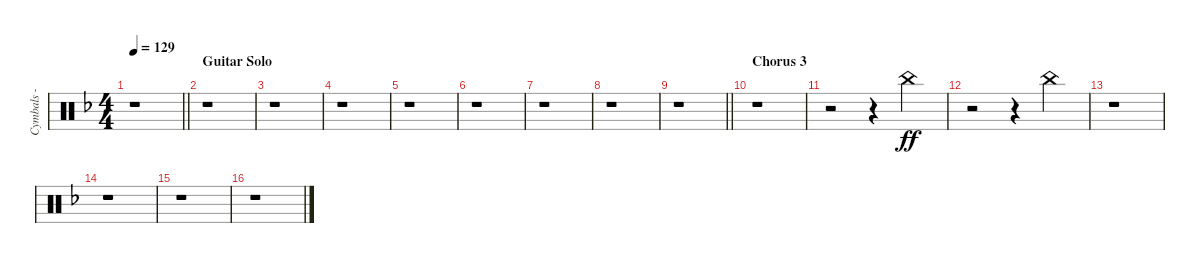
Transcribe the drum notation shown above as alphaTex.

\track ("Cymbals - china" "Cymbals - ") {instrument percussion}
\staff {score}
\articulation defaults
\ts (4 4)
\tempo 129
\clef neutral
\barLineRight lightlight
\ks dminor
r.1{dy ff} |
\section ("" "Guitar Solo")
r.1 |
r.1 |
r.1 |
r.1 |
r.1 |
r.1 |
r.1 |
\barLineRight lightlight
r.1 |
\section ("" "Chorus 3")
r.1 |
r.2 r.4{beam merge} "China (hit)".4 |
r.2 r.4{beam merge} "China (hit)".4 |
r.1 |
r.1 |
r.1 |
r.1
